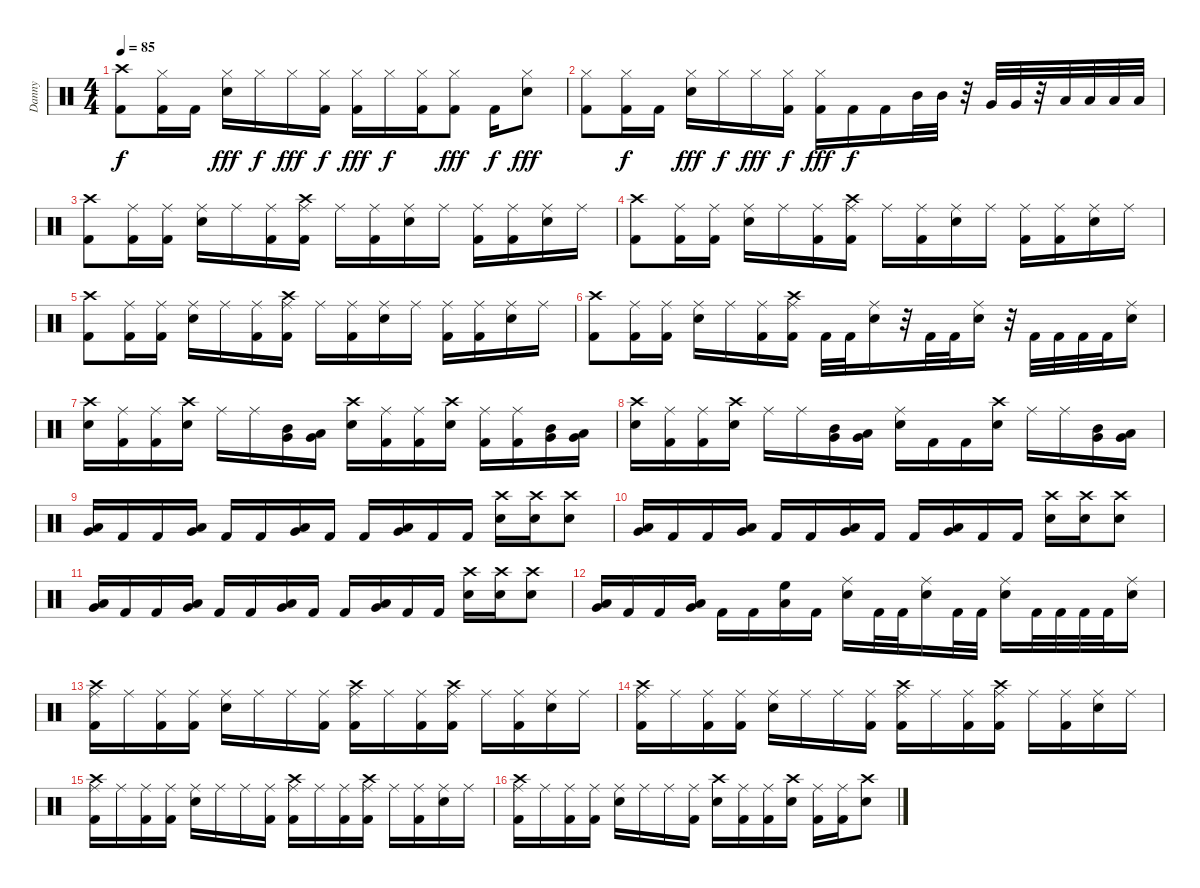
\track ("Danny" "Danny") {instrument percussion}
\staff {score}
\articulation defaults
\ts (4 4)
\tempo 85
\clef neutral
\ks c
("Crash high (hit)" "Kick (hit) 2").8{dy f} ("Hi-Hat (closed)" "Kick (hit) 2").16 "Kick (hit) 2".16 ("Hi-Hat (closed)" "Snare (hit) 2").16{dy fff} "Hi-Hat (closed)".16{dy f} "Hi-Hat (closed)".16{dy fff} ("Hi-Hat (closed)" "Kick (hit) 2").16{dy f} ("Hi-Hat (closed)" "Kick (hit) 2").16{dy fff} "Hi-Hat (closed)".16{dy f} ("Hi-Hat (closed)" "Kick (hit) 2").16 ("Hi-Hat (closed)" "Kick (hit) 2").8{dy fff} "Kick (hit) 2".16{dy f} ("Hi-Hat (closed)" "Snare (hit) 2").8{dy fff} |
("Hi-Hat (closed)" "Kick (hit) 2").8 ("Hi-Hat (closed)" "Kick (hit) 2").16{dy f} "Kick (hit) 2".16 ("Hi-Hat (closed)" "Snare (hit) 2").16{dy fff} "Hi-Hat (closed)".16{dy f} "Hi-Hat (closed)".16{dy fff} ("Hi-Hat (closed)" "Kick (hit) 2").16{dy f} ("Hi-Hat (closed)" "Kick (hit) 2").16{dy fff} "Kick (hit) 2".16{dy f} "Kick (hit) 2".16 "Mid Tom (hit)".32 "Mid Tom (hit)".32 r.32 "Very Low Tom (hit)".32 "Very Low Tom (hit)".32 r.32 "Low Floor Tom (hit)".32 "Low Floor Tom (hit)".32 "Low Floor Tom (hit)".32 "Low Floor Tom (hit)".32 |
("Crash high (hit)" "Kick (hit) 2").8 ("Ride (middle)" "Kick (hit) 2").16 ("Ride (middle)" "Kick (hit) 2").16 ("Ride (middle)" "Snare (hit) 2").16 "Ride (middle)".16 ("Ride (middle)" "Kick (hit) 2").16 ("Crash high (hit)" "Ride (middle)" "Kick (hit) 2").16 "Ride (middle)".16 ("Ride (middle)" "Kick (hit) 2").16 ("Ride (middle)" "Snare (hit) 2").16 "Ride (middle)".16 ("Ride (middle)" "Kick (hit) 2").16 ("Ride (middle)" "Kick (hit) 2").16 ("Ride (middle)" "Snare (hit) 2").16 "Ride (middle)".16 |
("Crash high (hit)" "Kick (hit) 2").8 ("Ride (middle)" "Kick (hit) 2").16 ("Ride (middle)" "Kick (hit) 2").16 ("Ride (middle)" "Snare (hit) 2").16 "Ride (middle)".16 ("Ride (middle)" "Kick (hit) 2").16 ("Crash high (hit)" "Ride (middle)" "Kick (hit) 2").16 "Ride (middle)".16 ("Ride (middle)" "Kick (hit) 2").16 ("Ride (middle)" "Snare (hit) 2").16 "Ride (middle)".16 ("Ride (middle)" "Kick (hit) 2").16 ("Ride (middle)" "Kick (hit) 2").16 ("Ride (middle)" "Snare (hit) 2").16 "Ride (middle)".16 |
("Crash high (hit)" "Kick (hit) 2").8 ("Ride (middle)" "Kick (hit) 2").16 ("Ride (middle)" "Kick (hit) 2").16 ("Ride (middle)" "Snare (hit) 2").16 "Ride (middle)".16 ("Ride (middle)" "Kick (hit) 2").16 ("Crash high (hit)" "Ride (middle)" "Kick (hit) 2").16 "Ride (middle)".16 ("Ride (middle)" "Kick (hit) 2").16 ("Ride (middle)" "Snare (hit) 2").16 "Ride (middle)".16 ("Ride (middle)" "Kick (hit) 2").16 ("Ride (middle)" "Kick (hit) 2").16 ("Ride (middle)" "Snare (hit) 2").16 "Ride (middle)".16 |
("Crash high (hit)" "Kick (hit) 2").8 ("Ride (middle)" "Kick (hit) 2").16 ("Ride (middle)" "Kick (hit) 2").16 ("Ride (middle)" "Snare (hit) 2").16 "Ride (middle)".16 ("Ride (middle)" "Kick (hit) 2").16 ("Crash high (hit)" "Ride (middle)" "Kick (hit) 2").16 "Kick (hit) 2".32 "Kick (hit) 2".32 ("Ride (middle)" "Snare (hit) 2").16 r.32 "Kick (hit) 2".32 "Kick (hit) 2".32 ("Ride (middle)" "Snare (hit) 2").16 r.32 "Kick (hit) 2".32 "Kick (hit) 2".32 "Kick (hit) 2".32 "Kick (hit) 2".32 ("Ride (middle)" "Snare (hit) 2").16 |
("Crash high (hit)" "Snare (hit) 2").16 ("Ride (middle)" "Kick (hit) 2").16 ("Ride (middle)" "Kick (hit) 2").16 ("Crash high (hit)" "Snare (hit) 2").16 "Ride (middle)".16 "Ride (middle)".16 ("Mid Tom (hit)" "Very Low Tom (hit)").16 ("Very Low Tom (hit)" "Low Floor Tom (hit)").16 ("Crash high (hit)" "Snare (hit) 2").16 ("Ride (middle)" "Kick (hit) 2").16 ("Ride (middle)" "Kick (hit) 2").16 ("Crash high (hit)" "Snare (hit) 2").16 ("Ride (middle)" "Kick (hit) 2").16 ("Ride (middle)" "Kick (hit) 2").16 ("Mid Tom (hit)" "Very Low Tom (hit)").16 ("Very Low Tom (hit)" "Low Floor Tom (hit)").16 |
("Crash high (hit)" "Snare (hit) 2").16 ("Ride (middle)" "Kick (hit) 2").16 ("Ride (middle)" "Kick (hit) 2").16 ("Crash high (hit)" "Snare (hit) 2").16 "Ride (middle)".16 "Ride (middle)".16 ("Mid Tom (hit)" "Very Low Tom (hit)").16 ("Very Low Tom (hit)" "Low Floor Tom (hit)").16 ("Ride (middle)" "Snare (hit) 2").16 "Kick (hit) 2".16 "Kick (hit) 2".16 ("Crash high (hit)" "Snare (hit) 2").16 "Ride (middle)".16 "Ride (middle)".16 ("Mid Tom (hit)" "Very Low Tom (hit)").16 ("Very Low Tom (hit)" "Low Floor Tom (hit)").16 |
("Very Low Tom (hit)" "Low Floor Tom (hit)").16 "Kick (hit) 2".16 "Kick (hit) 2".16 ("Very Low Tom (hit)" "Low Floor Tom (hit)").16 "Kick (hit) 2".16 "Kick (hit) 2".16 ("Very Low Tom (hit)" "Low Floor Tom (hit)").16 "Kick (hit) 2".16 "Kick (hit) 2".16 ("Very Low Tom (hit)" "Low Floor Tom (hit)").16 "Kick (hit) 2".16 "Kick (hit) 2".16 ("Crash high (hit)" "Snare (hit) 2").16 ("Crash high (hit)" "Snare (hit) 2").16 ("Crash high (hit)" "Snare (hit) 2").8 |
("Very Low Tom (hit)" "Low Floor Tom (hit)").16 "Kick (hit) 2".16 "Kick (hit) 2".16 ("Very Low Tom (hit)" "Low Floor Tom (hit)").16 "Kick (hit) 2".16 "Kick (hit) 2".16 ("Very Low Tom (hit)" "Low Floor Tom (hit)").16 "Kick (hit) 2".16 "Kick (hit) 2".16 ("Very Low Tom (hit)" "Low Floor Tom (hit)").16 "Kick (hit) 2".16 "Kick (hit) 2".16 ("Crash high (hit)" "Snare (hit) 2").16 ("Crash high (hit)" "Snare (hit) 2").16 ("Crash high (hit)" "Snare (hit) 2").8 |
("Very Low Tom (hit)" "Low Floor Tom (hit)").16 "Kick (hit) 2".16 "Kick (hit) 2".16 ("Very Low Tom (hit)" "Low Floor Tom (hit)").16 "Kick (hit) 2".16 "Kick (hit) 2".16 ("Very Low Tom (hit)" "Low Floor Tom (hit)").16 "Kick (hit) 2".16 "Kick (hit) 2".16 ("Very Low Tom (hit)" "Low Floor Tom (hit)").16 "Kick (hit) 2".16 "Kick (hit) 2".16 ("Crash high (hit)" "Snare (hit) 2").16 ("Crash high (hit)" "Snare (hit) 2").16 ("Crash high (hit)" "Snare (hit) 2").8 |
("Very Low Tom (hit)" "Low Floor Tom (hit)").16 "Kick (hit) 2".16 "Kick (hit) 2".16 ("Very Low Tom (hit)" "Low Floor Tom (hit)").16 "Kick (hit) 2".16 "Kick (hit) 2".16 ("High Floor Tom (hit)" "Low Floor Tom (hit)").16 "Kick (hit) 2".16 ("Snare (hit) 2" "Ride (middle)").16 "Kick (hit) 2".32 "Kick (hit) 2".32 ("Snare (hit) 2" "Ride (middle)").16 "Kick (hit) 2".32 "Kick (hit) 2".32 ("Snare (hit) 2" "Ride (middle)").16 "Kick (hit) 2".32 "Kick (hit) 2".32 "Kick (hit) 2".32 "Kick (hit) 2".32 ("Snare (hit) 2" "Ride (middle)").16 |
("Crash high (hit)" "Ride (middle)" "Kick (hit) 2").16 "Ride (middle)".16 ("Ride (middle)" "Kick (hit) 2").16 ("Ride (middle)" "Kick (hit) 2").16 ("Ride (middle)" "Snare (hit) 2").16 "Ride (middle)".16 "Ride (middle)".16 ("Ride (middle)" "Kick (hit) 2").16 ("Crash high (hit)" "Ride (middle)" "Kick (hit) 2").16 "Ride (middle)".16 ("Ride (middle)" "Kick (hit) 2").16 ("Crash high (hit)" "Ride (middle)" "Kick (hit) 2").16 "Ride (middle)".16 ("Ride (middle)" "Kick (hit) 2").16 ("Ride (middle)" "Snare (hit) 2").16 "Ride (middle)".16 |
("Crash high (hit)" "Ride (middle)" "Kick (hit) 2").16 "Ride (middle)".16 ("Ride (middle)" "Kick (hit) 2").16 ("Ride (middle)" "Kick (hit) 2").16 ("Ride (middle)" "Snare (hit) 2").16 "Ride (middle)".16 "Ride (middle)".16 ("Ride (middle)" "Kick (hit) 2").16 ("Crash high (hit)" "Ride (middle)" "Kick (hit) 2").16 "Ride (middle)".16 ("Ride (middle)" "Kick (hit) 2").16 ("Crash high (hit)" "Ride (middle)" "Kick (hit) 2").16 "Ride (middle)".16 ("Ride (middle)" "Kick (hit) 2").16 ("Ride (middle)" "Snare (hit) 2").16 "Ride (middle)".16 |
("Crash high (hit)" "Ride (middle)" "Kick (hit) 2").16 "Ride (middle)".16 ("Ride (middle)" "Kick (hit) 2").16 ("Ride (middle)" "Kick (hit) 2").16 ("Ride (middle)" "Snare (hit) 2").16 "Ride (middle)".16 "Ride (middle)".16 ("Ride (middle)" "Kick (hit) 2").16 ("Crash high (hit)" "Ride (middle)" "Kick (hit) 2").16 "Ride (middle)".16 ("Ride (middle)" "Kick (hit) 2").16 ("Crash high (hit)" "Ride (middle)" "Kick (hit) 2").16 "Ride (middle)".16 ("Ride (middle)" "Kick (hit) 2").16 ("Ride (middle)" "Snare (hit) 2").16 "Ride (middle)".16 |
("Crash high (hit)" "Ride (middle)" "Kick (hit) 2").16 "Ride (middle)".16 ("Ride (middle)" "Kick (hit) 2").16 ("Ride (middle)" "Kick (hit) 2").16 ("Ride (middle)" "Snare (hit) 2").16 "Ride (middle)".16 "Ride (middle)".16 ("Ride (middle)" "Kick (hit) 2").16 ("Crash high (hit)" "Snare (hit) 2").16 ("Ride (middle)" "Kick (hit) 2").16 ("Ride (middle)" "Kick (hit) 2").16 ("Crash high (hit)" "Snare (hit) 2").16 ("Ride (middle)" "Kick (hit) 2").16 ("Ride (middle)" "Kick (hit) 2").16 ("Crash high (hit)" "Snare (hit) 2").8
